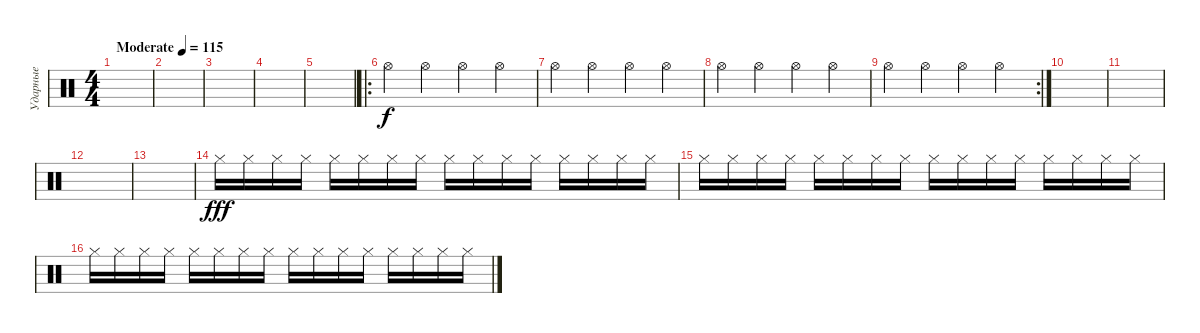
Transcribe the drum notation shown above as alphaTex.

\track ("Ударные" "Ударные") {instrument percussion}
\staff {score}
\articulation defaults
\ts (4 4)
\tempo (115 "Moderate")
\clef neutral
\ks c
|
|
|
|
|
\ro "Hi-Hat (open)".4 "Hi-Hat (open)".4 "Hi-Hat (open)".4 "Hi-Hat (open)".4
|
"Hi-Hat (open)".4 "Hi-Hat (open)".4 "Hi-Hat (open)".4 "Hi-Hat (open)".4 |
"Hi-Hat (open)".4 "Hi-Hat (open)".4 "Hi-Hat (open)".4 "Hi-Hat (open)".4 |
\rc 2 "Hi-Hat (open)".4 "Hi-Hat (open)".4 "Hi-Hat (open)".4 "Hi-Hat (open)".4
|
|
|
|
|
"Hi-Hat (closed)".16{dy fff} "Hi-Hat (closed)".16 "Hi-Hat (closed)".16 "Hi-Hat (closed)".16 "Hi-Hat (closed)".16 "Hi-Hat (closed)".16 "Hi-Hat (closed)".16 "Hi-Hat (closed)".16 "Hi-Hat (closed)".16 "Hi-Hat (closed)".16 "Hi-Hat (closed)".16 "Hi-Hat (closed)".16 "Hi-Hat (closed)".16 "Hi-Hat (closed)".16 "Hi-Hat (closed)".16 "Hi-Hat (closed)".16 |
"Hi-Hat (closed)".16 "Hi-Hat (closed)".16 "Hi-Hat (closed)".16 "Hi-Hat (closed)".16 "Hi-Hat (closed)".16 "Hi-Hat (closed)".16 "Hi-Hat (closed)".16 "Hi-Hat (closed)".16 "Hi-Hat (closed)".16 "Hi-Hat (closed)".16 "Hi-Hat (closed)".16 "Hi-Hat (closed)".16 "Hi-Hat (closed)".16 "Hi-Hat (closed)".16 "Hi-Hat (closed)".16 "Hi-Hat (closed)".16 |
"Hi-Hat (closed)".16 "Hi-Hat (closed)".16 "Hi-Hat (closed)".16 "Hi-Hat (closed)".16 "Hi-Hat (closed)".16 "Hi-Hat (closed)".16 "Hi-Hat (closed)".16 "Hi-Hat (closed)".16 "Hi-Hat (closed)".16 "Hi-Hat (closed)".16 "Hi-Hat (closed)".16 "Hi-Hat (closed)".16 "Hi-Hat (closed)".16 "Hi-Hat (closed)".16 "Hi-Hat (closed)".16 "Hi-Hat (closed)".16
